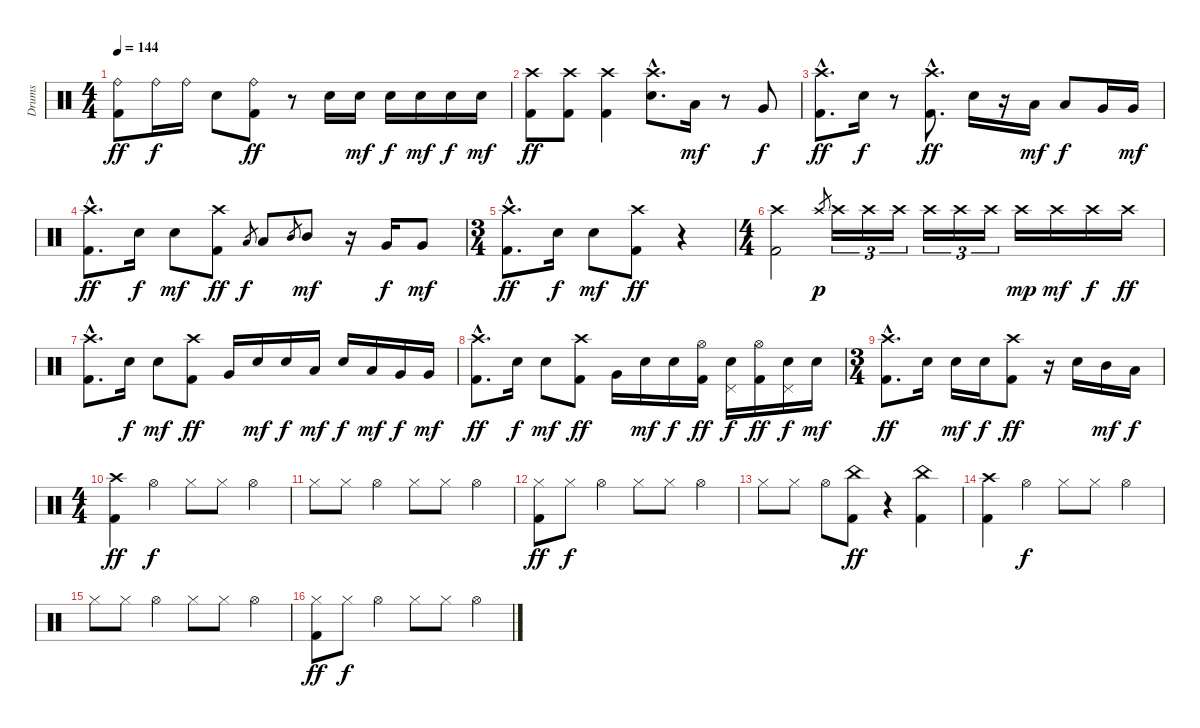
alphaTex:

\track ("Drums" "Drums") {instrument percussion}
\staff {score}
\articulation defaults
\ts (4 4)
\tempo 144
\clef neutral
\ks c
("Ride (bell)" "Kick (hit) 2").8{dy ff} "Ride (bell)".16{dy f} "Ride (bell)".16 "Snare (hit) 2".8 ("Ride (bell)" "Kick (hit) 2").8{dy ff} r.8 "Snare (hit) 2".16 "Snare (hit) 2".16{dy mf} "Snare (hit) 2".16{dy f} "Snare (hit) 2".16{dy mf} "Snare (hit) 2".16{dy f} "Snare (hit) 2".16{dy mf} |
("Crash high (hit)" "Kick (hit) 2").8{dy ff} ("Crash high (hit)" "Kick (hit) 2").8 ("Crash high (hit)" "Kick (hit) 2").4 ("Crash high (hit)"{hac} "Snare (hit) 2"{hac}).8{d} "Low Tom (hit)".16{dy mf} r.8 "Very Low Tom (hit)".8{dy f} |
("Crash high (hit)"{hac} "Kick (hit) 2"{hac}).8{d dy ff} "Snare (hit) 2".16{dy f} r.8 ("Crash high (hit)"{hac} "Kick (hit) 2"{hac}).8{d dy ff} "Snare (hit) 2".16 r.16 "Low Tom (hit)".16{dy mf} "Low Tom (hit)".8{dy f} "Very Low Tom (hit)".16 "Very Low Tom (hit)".16{dy mf} |
("Crash high (hit)"{hac} "Kick (hit) 2"{hac}).8{d dy ff} "Snare (hit) 2".16{dy f} "Snare (hit) 2".8{dy mf} ("Crash high (hit)" "Kick (hit) 2").8{dy ff} "Low Floor Tom (hit)".8{gr dy f} "Low Floor Tom (hit)".8 "Mid Tom (hit)".8{gr} "Mid Tom (hit)".8{dy mf} r.16 "Very Low Tom (hit)".16{dy f} "Very Low Tom (hit)".8{dy mf} |
\ts (3 4)
("Crash high (hit)"{hac} "Kick (hit) 2"{hac}).8{d dy ff} "Snare (hit) 2".16{dy f} "Snare (hit) 2".8{dy mf} ("Crash high (hit)" "Kick (hit) 2").8{dy ff} r.4 |
\ts (4 4)
("Crash high (hit)" "Kick (hit) 2").2 "Crash high (hit)".8{gr dy p} "Crash high (hit)".16{tu (3 2)} "Crash high (hit)".16{tu (3 2)} "Crash high (hit)".16{tu (3 2)} "Crash high (hit)".16{tu (3 2)} "Crash high (hit)".16{tu (3 2)} "Crash high (hit)".16{tu (3 2)} "Crash high (hit)".16{dy mp} "Crash high (hit)".16{dy mf} "Crash high (hit)".16{dy f} "Crash high (hit)".16{dy ff} |
("Crash high (hit)"{hac} "Kick (hit) 2"{hac}).8{d} "Snare (hit) 2".16{dy f} "Snare (hit) 2".8{dy mf} ("Crash high (hit)" "Kick (hit) 2").8{dy ff} "Very Low Tom (hit)".16 "Snare (hit) 2".16{dy mf} "Snare (hit) 2".16{dy f} "Low Tom (hit)".16{dy mf} "Snare (hit) 2".16{dy f} "Low Tom (hit)".16{dy mf} "Very Low Tom (hit)".16{dy f} "Very Low Tom (hit)".16{dy mf} |
("Crash high (hit)"{hac} "Kick (hit) 2"{hac}).8{d dy ff} "Snare (hit) 2".16{dy f} "Snare (hit) 2".8{dy mf} ("Crash high (hit)" "Kick (hit) 2").8{dy ff} "Very Low Tom (hit)".16 "Snare (hit) 2".16{dy mf} "Snare (hit) 2".16{dy f} ("Hi-Hat (open)" "Kick (hit) 2").16{dy ff} ("Pedal Hi-Hat (hit)" "Snare (hit) 2").16{dy f} ("Hi-Hat (open)" "Kick (hit) 2").16{dy ff} ("Pedal Hi-Hat (hit)" "Snare (hit) 2").16{dy f} "Snare (hit) 2".16{dy mf} |
\ts (3 4)
("Crash high (hit)"{hac} "Kick (hit) 2"{hac}).8{d dy ff} "Snare (hit) 2".16 "Snare (hit) 2".16{dy mf} "Snare (hit) 2".16{dy f} ("Crash high (hit)" "Kick (hit) 2").8{dy ff} r.16 "Snare (hit) 2".16 "Mid Tom (hit)".16{dy mf} "Low Floor Tom (hit)".16{dy f} |
\ts (4 4)
("Crash high (hit)" "Kick (hit) 2").4{dy ff} "Hi-Hat (open)".4{dy f} "Hi-Hat (closed)".8 "Hi-Hat (closed)".8 "Hi-Hat (open)".4 |
"Hi-Hat (closed)".8 "Hi-Hat (closed)".8 "Hi-Hat (open)".4 "Hi-Hat (closed)".8 "Hi-Hat (closed)".8 "Hi-Hat (open)".4 |
("Hi-Hat (closed)" "Kick (hit) 2").8{dy ff} "Hi-Hat (closed)".8{dy f} "Hi-Hat (open)".4 "Hi-Hat (closed)".8 "Hi-Hat (closed)".8 "Hi-Hat (open)".4 |
"Hi-Hat (closed)".8 "Hi-Hat (closed)".8 "Hi-Hat (open)".8 ("China (hit)" "Kick (hit) 2").8{dy ff} r.4 ("China (hit)" "Kick (hit) 2").4 |
("Crash high (hit)" "Kick (hit) 2").4 "Hi-Hat (open)".4{dy f} "Hi-Hat (closed)".8 "Hi-Hat (closed)".8 "Hi-Hat (open)".4 |
"Hi-Hat (closed)".8 "Hi-Hat (closed)".8 "Hi-Hat (open)".4 "Hi-Hat (closed)".8 "Hi-Hat (closed)".8 "Hi-Hat (open)".4 |
("Hi-Hat (closed)" "Kick (hit) 2").8{dy ff} "Hi-Hat (closed)".8{dy f} "Hi-Hat (open)".4 "Hi-Hat (closed)".8 "Hi-Hat (closed)".8 "Hi-Hat (open)".4
